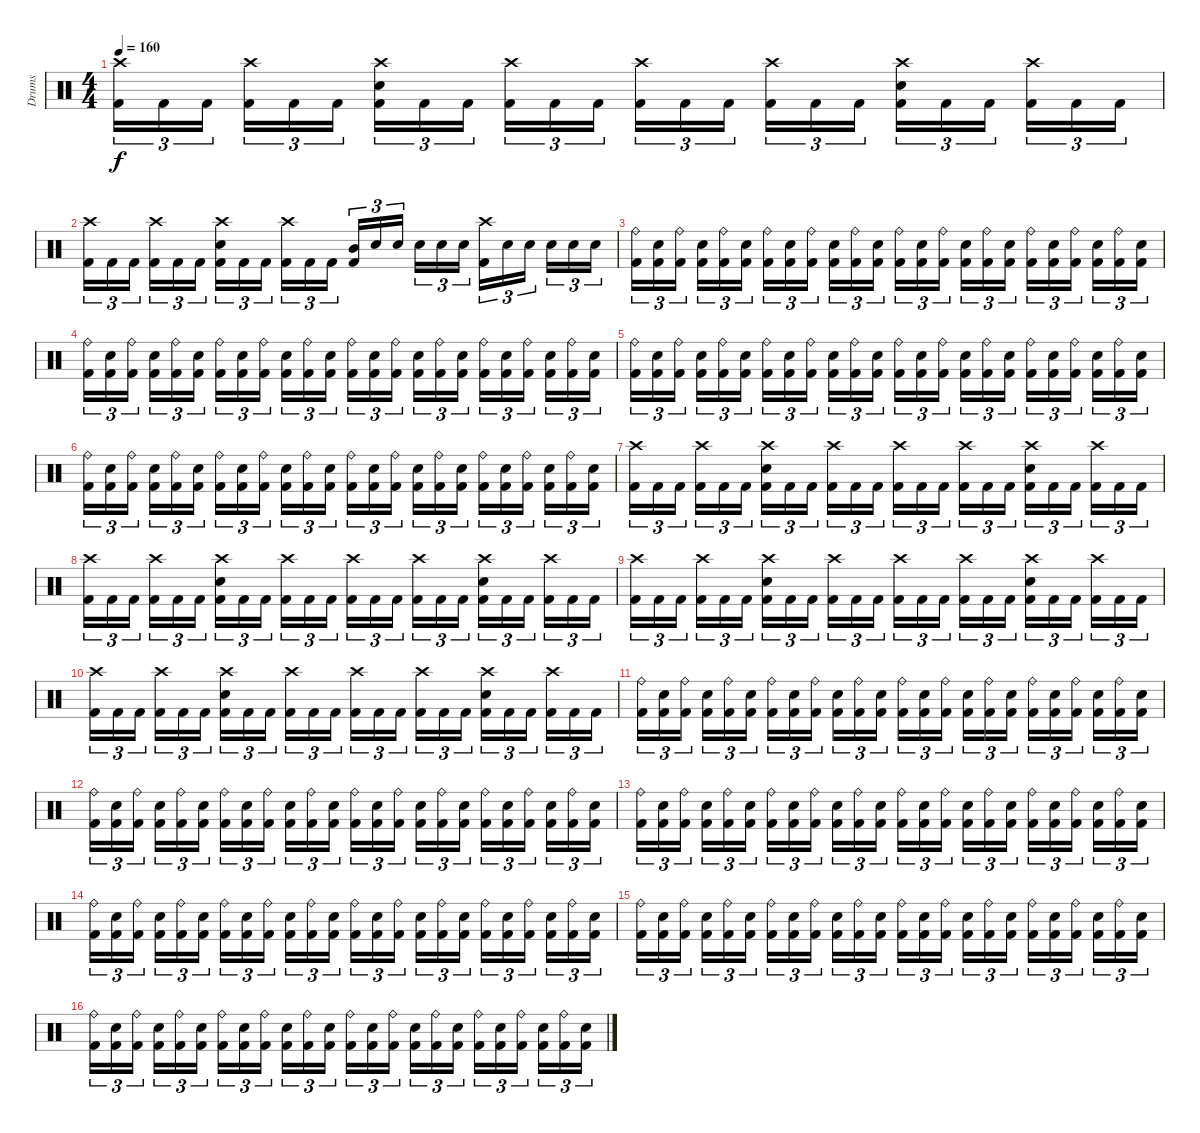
\track ("Drums" "Drums") {instrument percussion}
\staff {score}
\articulation defaults
\ts (4 4)
\tempo 160
\clef neutral
\ks c
("Crash high (hit)" "Kick (hit) 2").16{tu (3 2) dy f} "Kick (hit) 2".16{tu (3 2)} "Kick (hit) 2".16{tu (3 2) beam splitsecondary} ("Crash high (hit)" "Kick (hit) 2").16{tu (3 2)} "Kick (hit) 2".16{tu (3 2)} "Kick (hit) 2".16{tu (3 2)} ("Crash high (hit)" "Electric Snare (hit)" "Kick (hit) 2").16{tu (3 2)} "Kick (hit) 2".16{tu (3 2)} "Kick (hit) 2".16{tu (3 2) beam splitsecondary} ("Crash high (hit)" "Kick (hit) 2").16{tu (3 2)} "Kick (hit) 2".16{tu (3 2)} "Kick (hit) 2".16{tu (3 2)} ("Crash high (hit)" "Kick (hit) 2").16{tu (3 2)} "Kick (hit) 2".16{tu (3 2)} "Kick (hit) 2".16{tu (3 2) beam splitsecondary} ("Crash high (hit)" "Kick (hit) 2").16{tu (3 2)} "Kick (hit) 2".16{tu (3 2)} "Kick (hit) 2".16{tu (3 2)} ("Crash high (hit)" "Electric Snare (hit)" "Kick (hit) 2").16{tu (3 2)} "Kick (hit) 2".16{tu (3 2)} "Kick (hit) 2".16{tu (3 2) beam splitsecondary} ("Crash high (hit)" "Kick (hit) 2").16{tu (3 2)} "Kick (hit) 2".16{tu (3 2)} "Kick (hit) 2".16{tu (3 2)} |
("Crash high (hit)" "Kick (hit) 2").16{tu (3 2)} "Kick (hit) 2".16{tu (3 2)} "Kick (hit) 2".16{tu (3 2) beam splitsecondary} ("Crash high (hit)" "Kick (hit) 2").16{tu (3 2)} "Kick (hit) 2".16{tu (3 2)} "Kick (hit) 2".16{tu (3 2)} ("Crash high (hit)" "Electric Snare (hit)" "Kick (hit) 2").16{tu (3 2)} "Kick (hit) 2".16{tu (3 2)} "Kick (hit) 2".16{tu (3 2) beam splitsecondary} ("Crash high (hit)" "Kick (hit) 2").16{tu (3 2)} "Kick (hit) 2".16{tu (3 2)} "Kick (hit) 2".16{tu (3 2)} ("Mid Tom (hit)" "Kick (hit) 2").16{tu (3 2)} "Electric Snare (hit)".16{tu (3 2)} "Electric Snare (hit)".16{tu (3 2) beam splitsecondary} "Electric Snare (hit)".16{tu (3 2)} "Electric Snare (hit)".16{tu (3 2)} "Electric Snare (hit)".16{tu (3 2)} ("Crash high (hit)" "Kick (hit) 2").16{tu (3 2)} "Electric Snare (hit)".16{tu (3 2)} "Electric Snare (hit)".16{tu (3 2) beam splitsecondary} "Electric Snare (hit)".16{tu (3 2)} "Electric Snare (hit)".16{tu (3 2)} "Electric Snare (hit)".16{tu (3 2)} |
("Ride (bell)" "Kick (hit) 2").16{tu (3 2)} ("Electric Snare (hit)" "Kick (hit) 2").16{tu (3 2)} ("Ride (bell)" "Kick (hit) 2").16{tu (3 2) beam splitsecondary} ("Electric Snare (hit)" "Kick (hit) 2").16{tu (3 2)} ("Ride (bell)" "Kick (hit) 2").16{tu (3 2)} ("Electric Snare (hit)" "Kick (hit) 2").16{tu (3 2)} ("Ride (bell)" "Kick (hit) 2").16{tu (3 2)} ("Electric Snare (hit)" "Kick (hit) 2").16{tu (3 2)} ("Ride (bell)" "Kick (hit) 2").16{tu (3 2) beam splitsecondary} ("Electric Snare (hit)" "Kick (hit) 2").16{tu (3 2)} ("Ride (bell)" "Kick (hit) 2").16{tu (3 2)} ("Electric Snare (hit)" "Kick (hit) 2").16{tu (3 2)} ("Ride (bell)" "Kick (hit) 2").16{tu (3 2)} ("Electric Snare (hit)" "Kick (hit) 2").16{tu (3 2)} ("Ride (bell)" "Kick (hit) 2").16{tu (3 2) beam splitsecondary} ("Electric Snare (hit)" "Kick (hit) 2").16{tu (3 2)} ("Ride (bell)" "Kick (hit) 2").16{tu (3 2)} ("Electric Snare (hit)" "Kick (hit) 2").16{tu (3 2)} ("Ride (bell)" "Kick (hit) 2").16{tu (3 2)} ("Electric Snare (hit)" "Kick (hit) 2").16{tu (3 2)} ("Ride (bell)" "Kick (hit) 2").16{tu (3 2) beam splitsecondary} ("Electric Snare (hit)" "Kick (hit) 2").16{tu (3 2)} ("Ride (bell)" "Kick (hit) 2").16{tu (3 2)} ("Electric Snare (hit)" "Kick (hit) 2").16{tu (3 2)} |
("Ride (bell)" "Kick (hit) 2").16{tu (3 2)} ("Electric Snare (hit)" "Kick (hit) 2").16{tu (3 2)} ("Ride (bell)" "Kick (hit) 2").16{tu (3 2) beam splitsecondary} ("Electric Snare (hit)" "Kick (hit) 2").16{tu (3 2)} ("Ride (bell)" "Kick (hit) 2").16{tu (3 2)} ("Electric Snare (hit)" "Kick (hit) 2").16{tu (3 2)} ("Ride (bell)" "Kick (hit) 2").16{tu (3 2)} ("Electric Snare (hit)" "Kick (hit) 2").16{tu (3 2)} ("Ride (bell)" "Kick (hit) 2").16{tu (3 2) beam splitsecondary} ("Electric Snare (hit)" "Kick (hit) 2").16{tu (3 2)} ("Ride (bell)" "Kick (hit) 2").16{tu (3 2)} ("Electric Snare (hit)" "Kick (hit) 2").16{tu (3 2)} ("Ride (bell)" "Kick (hit) 2").16{tu (3 2)} ("Electric Snare (hit)" "Kick (hit) 2").16{tu (3 2)} ("Ride (bell)" "Kick (hit) 2").16{tu (3 2) beam splitsecondary} ("Electric Snare (hit)" "Kick (hit) 2").16{tu (3 2)} ("Ride (bell)" "Kick (hit) 2").16{tu (3 2)} ("Electric Snare (hit)" "Kick (hit) 2").16{tu (3 2)} ("Ride (bell)" "Kick (hit) 2").16{tu (3 2)} ("Electric Snare (hit)" "Kick (hit) 2").16{tu (3 2)} ("Ride (bell)" "Kick (hit) 2").16{tu (3 2) beam splitsecondary} ("Electric Snare (hit)" "Kick (hit) 2").16{tu (3 2)} ("Ride (bell)" "Kick (hit) 2").16{tu (3 2)} ("Electric Snare (hit)" "Kick (hit) 2").16{tu (3 2)} |
("Ride (bell)" "Kick (hit) 2").16{tu (3 2)} ("Electric Snare (hit)" "Kick (hit) 2").16{tu (3 2)} ("Ride (bell)" "Kick (hit) 2").16{tu (3 2) beam splitsecondary} ("Electric Snare (hit)" "Kick (hit) 2").16{tu (3 2)} ("Ride (bell)" "Kick (hit) 2").16{tu (3 2)} ("Electric Snare (hit)" "Kick (hit) 2").16{tu (3 2)} ("Ride (bell)" "Kick (hit) 2").16{tu (3 2)} ("Electric Snare (hit)" "Kick (hit) 2").16{tu (3 2)} ("Ride (bell)" "Kick (hit) 2").16{tu (3 2) beam splitsecondary} ("Electric Snare (hit)" "Kick (hit) 2").16{tu (3 2)} ("Ride (bell)" "Kick (hit) 2").16{tu (3 2)} ("Electric Snare (hit)" "Kick (hit) 2").16{tu (3 2)} ("Ride (bell)" "Kick (hit) 2").16{tu (3 2)} ("Electric Snare (hit)" "Kick (hit) 2").16{tu (3 2)} ("Ride (bell)" "Kick (hit) 2").16{tu (3 2) beam splitsecondary} ("Electric Snare (hit)" "Kick (hit) 2").16{tu (3 2)} ("Ride (bell)" "Kick (hit) 2").16{tu (3 2)} ("Electric Snare (hit)" "Kick (hit) 2").16{tu (3 2)} ("Ride (bell)" "Kick (hit) 2").16{tu (3 2)} ("Electric Snare (hit)" "Kick (hit) 2").16{tu (3 2)} ("Ride (bell)" "Kick (hit) 2").16{tu (3 2) beam splitsecondary} ("Electric Snare (hit)" "Kick (hit) 2").16{tu (3 2)} ("Ride (bell)" "Kick (hit) 2").16{tu (3 2)} ("Electric Snare (hit)" "Kick (hit) 2").16{tu (3 2)} |
("Ride (bell)" "Kick (hit) 2").16{tu (3 2)} ("Electric Snare (hit)" "Kick (hit) 2").16{tu (3 2)} ("Ride (bell)" "Kick (hit) 2").16{tu (3 2) beam splitsecondary} ("Electric Snare (hit)" "Kick (hit) 2").16{tu (3 2)} ("Ride (bell)" "Kick (hit) 2").16{tu (3 2)} ("Electric Snare (hit)" "Kick (hit) 2").16{tu (3 2)} ("Ride (bell)" "Kick (hit) 2").16{tu (3 2)} ("Electric Snare (hit)" "Kick (hit) 2").16{tu (3 2)} ("Ride (bell)" "Kick (hit) 2").16{tu (3 2) beam splitsecondary} ("Electric Snare (hit)" "Kick (hit) 2").16{tu (3 2)} ("Ride (bell)" "Kick (hit) 2").16{tu (3 2)} ("Electric Snare (hit)" "Kick (hit) 2").16{tu (3 2)} ("Ride (bell)" "Kick (hit) 2").16{tu (3 2)} ("Electric Snare (hit)" "Kick (hit) 2").16{tu (3 2)} ("Ride (bell)" "Kick (hit) 2").16{tu (3 2) beam splitsecondary} ("Electric Snare (hit)" "Kick (hit) 2").16{tu (3 2)} ("Ride (bell)" "Kick (hit) 2").16{tu (3 2)} ("Electric Snare (hit)" "Kick (hit) 2").16{tu (3 2)} ("Ride (bell)" "Kick (hit) 2").16{tu (3 2)} ("Electric Snare (hit)" "Kick (hit) 2").16{tu (3 2)} ("Ride (bell)" "Kick (hit) 2").16{tu (3 2) beam splitsecondary} ("Electric Snare (hit)" "Kick (hit) 2").16{tu (3 2)} ("Ride (bell)" "Kick (hit) 2").16{tu (3 2)} ("Electric Snare (hit)" "Kick (hit) 2").16{tu (3 2)} |
("Crash high (hit)" "Kick (hit) 2").16{tu (3 2)} "Kick (hit) 2".16{tu (3 2)} "Kick (hit) 2".16{tu (3 2) beam splitsecondary} ("Crash high (hit)" "Kick (hit) 2").16{tu (3 2)} "Kick (hit) 2".16{tu (3 2)} "Kick (hit) 2".16{tu (3 2)} ("Crash high (hit)" "Electric Snare (hit)" "Kick (hit) 2").16{tu (3 2)} "Kick (hit) 2".16{tu (3 2)} "Kick (hit) 2".16{tu (3 2) beam splitsecondary} ("Crash high (hit)" "Kick (hit) 2").16{tu (3 2)} "Kick (hit) 2".16{tu (3 2)} "Kick (hit) 2".16{tu (3 2)} ("Crash high (hit)" "Kick (hit) 2").16{tu (3 2)} "Kick (hit) 2".16{tu (3 2)} "Kick (hit) 2".16{tu (3 2) beam splitsecondary} ("Crash high (hit)" "Kick (hit) 2").16{tu (3 2)} "Kick (hit) 2".16{tu (3 2)} "Kick (hit) 2".16{tu (3 2)} ("Crash high (hit)" "Electric Snare (hit)" "Kick (hit) 2").16{tu (3 2)} "Kick (hit) 2".16{tu (3 2)} "Kick (hit) 2".16{tu (3 2) beam splitsecondary} ("Crash high (hit)" "Kick (hit) 2").16{tu (3 2)} "Kick (hit) 2".16{tu (3 2)} "Kick (hit) 2".16{tu (3 2)} |
("Crash high (hit)" "Kick (hit) 2").16{tu (3 2)} "Kick (hit) 2".16{tu (3 2)} "Kick (hit) 2".16{tu (3 2) beam splitsecondary} ("Crash high (hit)" "Kick (hit) 2").16{tu (3 2)} "Kick (hit) 2".16{tu (3 2)} "Kick (hit) 2".16{tu (3 2)} ("Crash high (hit)" "Electric Snare (hit)" "Kick (hit) 2").16{tu (3 2)} "Kick (hit) 2".16{tu (3 2)} "Kick (hit) 2".16{tu (3 2) beam splitsecondary} ("Crash high (hit)" "Kick (hit) 2").16{tu (3 2)} "Kick (hit) 2".16{tu (3 2)} "Kick (hit) 2".16{tu (3 2)} ("Crash high (hit)" "Kick (hit) 2").16{tu (3 2)} "Kick (hit) 2".16{tu (3 2)} "Kick (hit) 2".16{tu (3 2) beam splitsecondary} ("Crash high (hit)" "Kick (hit) 2").16{tu (3 2)} "Kick (hit) 2".16{tu (3 2)} "Kick (hit) 2".16{tu (3 2)} ("Crash high (hit)" "Electric Snare (hit)" "Kick (hit) 2").16{tu (3 2)} "Kick (hit) 2".16{tu (3 2)} "Kick (hit) 2".16{tu (3 2) beam splitsecondary} ("Crash high (hit)" "Kick (hit) 2").16{tu (3 2)} "Kick (hit) 2".16{tu (3 2)} "Kick (hit) 2".16{tu (3 2)} |
("Crash high (hit)" "Kick (hit) 2").16{tu (3 2)} "Kick (hit) 2".16{tu (3 2)} "Kick (hit) 2".16{tu (3 2) beam splitsecondary} ("Crash high (hit)" "Kick (hit) 2").16{tu (3 2)} "Kick (hit) 2".16{tu (3 2)} "Kick (hit) 2".16{tu (3 2)} ("Crash high (hit)" "Electric Snare (hit)" "Kick (hit) 2").16{tu (3 2)} "Kick (hit) 2".16{tu (3 2)} "Kick (hit) 2".16{tu (3 2) beam splitsecondary} ("Crash high (hit)" "Kick (hit) 2").16{tu (3 2)} "Kick (hit) 2".16{tu (3 2)} "Kick (hit) 2".16{tu (3 2)} ("Crash high (hit)" "Kick (hit) 2").16{tu (3 2)} "Kick (hit) 2".16{tu (3 2)} "Kick (hit) 2".16{tu (3 2) beam splitsecondary} ("Crash high (hit)" "Kick (hit) 2").16{tu (3 2)} "Kick (hit) 2".16{tu (3 2)} "Kick (hit) 2".16{tu (3 2)} ("Crash high (hit)" "Electric Snare (hit)" "Kick (hit) 2").16{tu (3 2)} "Kick (hit) 2".16{tu (3 2)} "Kick (hit) 2".16{tu (3 2) beam splitsecondary} ("Crash high (hit)" "Kick (hit) 2").16{tu (3 2)} "Kick (hit) 2".16{tu (3 2)} "Kick (hit) 2".16{tu (3 2)} |
("Crash high (hit)" "Kick (hit) 2").16{tu (3 2)} "Kick (hit) 2".16{tu (3 2)} "Kick (hit) 2".16{tu (3 2) beam splitsecondary} ("Crash high (hit)" "Kick (hit) 2").16{tu (3 2)} "Kick (hit) 2".16{tu (3 2)} "Kick (hit) 2".16{tu (3 2)} ("Crash high (hit)" "Electric Snare (hit)" "Kick (hit) 2").16{tu (3 2)} "Kick (hit) 2".16{tu (3 2)} "Kick (hit) 2".16{tu (3 2) beam splitsecondary} ("Crash high (hit)" "Kick (hit) 2").16{tu (3 2)} "Kick (hit) 2".16{tu (3 2)} "Kick (hit) 2".16{tu (3 2)} ("Crash high (hit)" "Kick (hit) 2").16{tu (3 2)} "Kick (hit) 2".16{tu (3 2)} "Kick (hit) 2".16{tu (3 2) beam splitsecondary} ("Crash high (hit)" "Kick (hit) 2").16{tu (3 2)} "Kick (hit) 2".16{tu (3 2)} "Kick (hit) 2".16{tu (3 2)} ("Crash high (hit)" "Electric Snare (hit)" "Kick (hit) 2").16{tu (3 2)} "Kick (hit) 2".16{tu (3 2)} "Kick (hit) 2".16{tu (3 2) beam splitsecondary} ("Crash high (hit)" "Kick (hit) 2").16{tu (3 2)} "Kick (hit) 2".16{tu (3 2)} "Kick (hit) 2".16{tu (3 2)} |
("Ride (bell)" "Kick (hit) 2").16{tu (3 2)} ("Electric Snare (hit)" "Kick (hit) 2").16{tu (3 2)} ("Ride (bell)" "Kick (hit) 2").16{tu (3 2) beam splitsecondary} ("Electric Snare (hit)" "Kick (hit) 2").16{tu (3 2)} ("Ride (bell)" "Kick (hit) 2").16{tu (3 2)} ("Electric Snare (hit)" "Kick (hit) 2").16{tu (3 2)} ("Ride (bell)" "Kick (hit) 2").16{tu (3 2)} ("Electric Snare (hit)" "Kick (hit) 2").16{tu (3 2)} ("Ride (bell)" "Kick (hit) 2").16{tu (3 2) beam splitsecondary} ("Electric Snare (hit)" "Kick (hit) 2").16{tu (3 2)} ("Ride (bell)" "Kick (hit) 2").16{tu (3 2)} ("Electric Snare (hit)" "Kick (hit) 2").16{tu (3 2)} ("Ride (bell)" "Kick (hit) 2").16{tu (3 2)} ("Electric Snare (hit)" "Kick (hit) 2").16{tu (3 2)} ("Ride (bell)" "Kick (hit) 2").16{tu (3 2) beam splitsecondary} ("Electric Snare (hit)" "Kick (hit) 2").16{tu (3 2)} ("Ride (bell)" "Kick (hit) 2").16{tu (3 2)} ("Electric Snare (hit)" "Kick (hit) 2").16{tu (3 2)} ("Ride (bell)" "Kick (hit) 2").16{tu (3 2)} ("Electric Snare (hit)" "Kick (hit) 2").16{tu (3 2)} ("Ride (bell)" "Kick (hit) 2").16{tu (3 2) beam splitsecondary} ("Electric Snare (hit)" "Kick (hit) 2").16{tu (3 2)} ("Ride (bell)" "Kick (hit) 2").16{tu (3 2)} ("Electric Snare (hit)" "Kick (hit) 2").16{tu (3 2)} |
("Ride (bell)" "Kick (hit) 2").16{tu (3 2)} ("Electric Snare (hit)" "Kick (hit) 2").16{tu (3 2)} ("Ride (bell)" "Kick (hit) 2").16{tu (3 2) beam splitsecondary} ("Electric Snare (hit)" "Kick (hit) 2").16{tu (3 2)} ("Ride (bell)" "Kick (hit) 2").16{tu (3 2)} ("Electric Snare (hit)" "Kick (hit) 2").16{tu (3 2)} ("Ride (bell)" "Kick (hit) 2").16{tu (3 2)} ("Electric Snare (hit)" "Kick (hit) 2").16{tu (3 2)} ("Ride (bell)" "Kick (hit) 2").16{tu (3 2) beam splitsecondary} ("Electric Snare (hit)" "Kick (hit) 2").16{tu (3 2)} ("Ride (bell)" "Kick (hit) 2").16{tu (3 2)} ("Electric Snare (hit)" "Kick (hit) 2").16{tu (3 2)} ("Ride (bell)" "Kick (hit) 2").16{tu (3 2)} ("Electric Snare (hit)" "Kick (hit) 2").16{tu (3 2)} ("Ride (bell)" "Kick (hit) 2").16{tu (3 2) beam splitsecondary} ("Electric Snare (hit)" "Kick (hit) 2").16{tu (3 2)} ("Ride (bell)" "Kick (hit) 2").16{tu (3 2)} ("Electric Snare (hit)" "Kick (hit) 2").16{tu (3 2)} ("Ride (bell)" "Kick (hit) 2").16{tu (3 2)} ("Electric Snare (hit)" "Kick (hit) 2").16{tu (3 2)} ("Ride (bell)" "Kick (hit) 2").16{tu (3 2) beam splitsecondary} ("Electric Snare (hit)" "Kick (hit) 2").16{tu (3 2)} ("Ride (bell)" "Kick (hit) 2").16{tu (3 2)} ("Electric Snare (hit)" "Kick (hit) 2").16{tu (3 2)} |
("Ride (bell)" "Kick (hit) 2").16{tu (3 2)} ("Electric Snare (hit)" "Kick (hit) 2").16{tu (3 2)} ("Ride (bell)" "Kick (hit) 2").16{tu (3 2) beam splitsecondary} ("Electric Snare (hit)" "Kick (hit) 2").16{tu (3 2)} ("Ride (bell)" "Kick (hit) 2").16{tu (3 2)} ("Electric Snare (hit)" "Kick (hit) 2").16{tu (3 2)} ("Ride (bell)" "Kick (hit) 2").16{tu (3 2)} ("Electric Snare (hit)" "Kick (hit) 2").16{tu (3 2)} ("Ride (bell)" "Kick (hit) 2").16{tu (3 2) beam splitsecondary} ("Electric Snare (hit)" "Kick (hit) 2").16{tu (3 2)} ("Ride (bell)" "Kick (hit) 2").16{tu (3 2)} ("Electric Snare (hit)" "Kick (hit) 2").16{tu (3 2)} ("Ride (bell)" "Kick (hit) 2").16{tu (3 2)} ("Electric Snare (hit)" "Kick (hit) 2").16{tu (3 2)} ("Ride (bell)" "Kick (hit) 2").16{tu (3 2) beam splitsecondary} ("Electric Snare (hit)" "Kick (hit) 2").16{tu (3 2)} ("Ride (bell)" "Kick (hit) 2").16{tu (3 2)} ("Electric Snare (hit)" "Kick (hit) 2").16{tu (3 2)} ("Ride (bell)" "Kick (hit) 2").16{tu (3 2)} ("Electric Snare (hit)" "Kick (hit) 2").16{tu (3 2)} ("Ride (bell)" "Kick (hit) 2").16{tu (3 2) beam splitsecondary} ("Electric Snare (hit)" "Kick (hit) 2").16{tu (3 2)} ("Ride (bell)" "Kick (hit) 2").16{tu (3 2)} ("Electric Snare (hit)" "Kick (hit) 2").16{tu (3 2)} |
("Ride (bell)" "Kick (hit) 2").16{tu (3 2)} ("Electric Snare (hit)" "Kick (hit) 2").16{tu (3 2)} ("Ride (bell)" "Kick (hit) 2").16{tu (3 2) beam splitsecondary} ("Electric Snare (hit)" "Kick (hit) 2").16{tu (3 2)} ("Ride (bell)" "Kick (hit) 2").16{tu (3 2)} ("Electric Snare (hit)" "Kick (hit) 2").16{tu (3 2)} ("Ride (bell)" "Kick (hit) 2").16{tu (3 2)} ("Electric Snare (hit)" "Kick (hit) 2").16{tu (3 2)} ("Ride (bell)" "Kick (hit) 2").16{tu (3 2) beam splitsecondary} ("Electric Snare (hit)" "Kick (hit) 2").16{tu (3 2)} ("Ride (bell)" "Kick (hit) 2").16{tu (3 2)} ("Electric Snare (hit)" "Kick (hit) 2").16{tu (3 2)} ("Ride (bell)" "Kick (hit) 2").16{tu (3 2)} ("Electric Snare (hit)" "Kick (hit) 2").16{tu (3 2)} ("Ride (bell)" "Kick (hit) 2").16{tu (3 2) beam splitsecondary} ("Electric Snare (hit)" "Kick (hit) 2").16{tu (3 2)} ("Ride (bell)" "Kick (hit) 2").16{tu (3 2)} ("Electric Snare (hit)" "Kick (hit) 2").16{tu (3 2)} ("Ride (bell)" "Kick (hit) 2").16{tu (3 2)} ("Electric Snare (hit)" "Kick (hit) 2").16{tu (3 2)} ("Ride (bell)" "Kick (hit) 2").16{tu (3 2) beam splitsecondary} ("Electric Snare (hit)" "Kick (hit) 2").16{tu (3 2)} ("Ride (bell)" "Kick (hit) 2").16{tu (3 2)} ("Electric Snare (hit)" "Kick (hit) 2").16{tu (3 2)} |
("Ride (bell)" "Kick (hit) 2").16{tu (3 2)} ("Electric Snare (hit)" "Kick (hit) 2").16{tu (3 2)} ("Ride (bell)" "Kick (hit) 2").16{tu (3 2) beam splitsecondary} ("Electric Snare (hit)" "Kick (hit) 2").16{tu (3 2)} ("Ride (bell)" "Kick (hit) 2").16{tu (3 2)} ("Electric Snare (hit)" "Kick (hit) 2").16{tu (3 2)} ("Ride (bell)" "Kick (hit) 2").16{tu (3 2)} ("Electric Snare (hit)" "Kick (hit) 2").16{tu (3 2)} ("Ride (bell)" "Kick (hit) 2").16{tu (3 2) beam splitsecondary} ("Electric Snare (hit)" "Kick (hit) 2").16{tu (3 2)} ("Ride (bell)" "Kick (hit) 2").16{tu (3 2)} ("Electric Snare (hit)" "Kick (hit) 2").16{tu (3 2)} ("Ride (bell)" "Kick (hit) 2").16{tu (3 2)} ("Electric Snare (hit)" "Kick (hit) 2").16{tu (3 2)} ("Ride (bell)" "Kick (hit) 2").16{tu (3 2) beam splitsecondary} ("Electric Snare (hit)" "Kick (hit) 2").16{tu (3 2)} ("Ride (bell)" "Kick (hit) 2").16{tu (3 2)} ("Electric Snare (hit)" "Kick (hit) 2").16{tu (3 2)} ("Ride (bell)" "Kick (hit) 2").16{tu (3 2)} ("Electric Snare (hit)" "Kick (hit) 2").16{tu (3 2)} ("Ride (bell)" "Kick (hit) 2").16{tu (3 2) beam splitsecondary} ("Electric Snare (hit)" "Kick (hit) 2").16{tu (3 2)} ("Ride (bell)" "Kick (hit) 2").16{tu (3 2)} ("Electric Snare (hit)" "Kick (hit) 2").16{tu (3 2)} |
("Ride (bell)" "Kick (hit) 2").16{tu (3 2)} ("Electric Snare (hit)" "Kick (hit) 2").16{tu (3 2)} ("Ride (bell)" "Kick (hit) 2").16{tu (3 2) beam splitsecondary} ("Electric Snare (hit)" "Kick (hit) 2").16{tu (3 2)} ("Ride (bell)" "Kick (hit) 2").16{tu (3 2)} ("Electric Snare (hit)" "Kick (hit) 2").16{tu (3 2)} ("Ride (bell)" "Kick (hit) 2").16{tu (3 2)} ("Electric Snare (hit)" "Kick (hit) 2").16{tu (3 2)} ("Ride (bell)" "Kick (hit) 2").16{tu (3 2) beam splitsecondary} ("Electric Snare (hit)" "Kick (hit) 2").16{tu (3 2)} ("Ride (bell)" "Kick (hit) 2").16{tu (3 2)} ("Electric Snare (hit)" "Kick (hit) 2").16{tu (3 2)} ("Ride (bell)" "Kick (hit) 2").16{tu (3 2)} ("Electric Snare (hit)" "Kick (hit) 2").16{tu (3 2)} ("Ride (bell)" "Kick (hit) 2").16{tu (3 2) beam splitsecondary} ("Electric Snare (hit)" "Kick (hit) 2").16{tu (3 2)} ("Ride (bell)" "Kick (hit) 2").16{tu (3 2)} ("Electric Snare (hit)" "Kick (hit) 2").16{tu (3 2)} ("Ride (bell)" "Kick (hit) 2").16{tu (3 2)} ("Electric Snare (hit)" "Kick (hit) 2").16{tu (3 2)} ("Ride (bell)" "Kick (hit) 2").16{tu (3 2) beam splitsecondary} ("Electric Snare (hit)" "Kick (hit) 2").16{tu (3 2)} ("Ride (bell)" "Kick (hit) 2").16{tu (3 2)} ("Electric Snare (hit)" "Kick (hit) 2").16{tu (3 2)}
